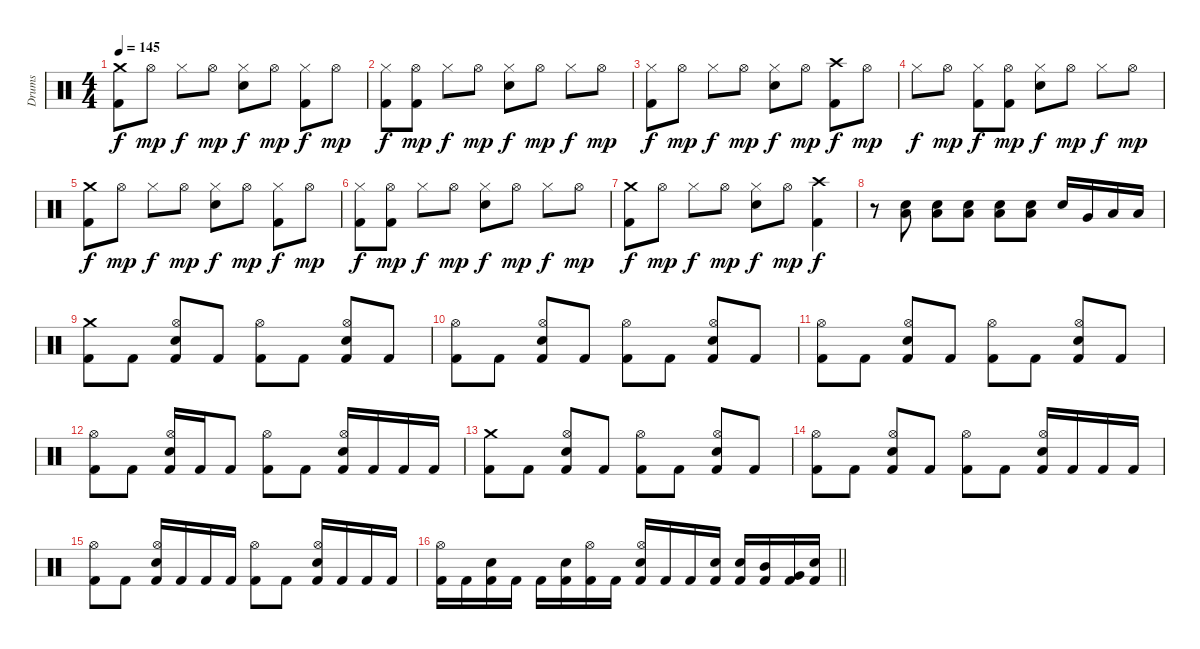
\track ("Drums" "Drums") {instrument percussion}
\staff {score}
\articulation defaults
\ts (4 4)
\tempo 145
\clef neutral
\ks c
("Crash medium (hit)" "Kick (hit) 2").8{dy f} "Hi-Hat (open)".8{dy mp} "Hi-Hat (closed)".8{dy f} "Hi-Hat (open)".8{dy mp} ("Hi-Hat (closed)" "Electric Snare (hit)").8{dy f} "Hi-Hat (open)".8{dy mp} ("Hi-Hat (closed)" "Kick (hit) 2").8{dy f} "Hi-Hat (open)".8{dy mp} |
("Hi-Hat (closed)" "Kick (hit) 2").8{dy f} ("Hi-Hat (open)" "Kick (hit) 2").8{dy mp} "Hi-Hat (closed)".8{dy f} "Hi-Hat (open)".8{dy mp} ("Hi-Hat (closed)" "Electric Snare (hit)").8{dy f} "Hi-Hat (open)".8{dy mp} "Hi-Hat (closed)".8{dy f} "Hi-Hat (open)".8{dy mp} |
("Hi-Hat (closed)" "Kick (hit) 2").8{dy f} "Hi-Hat (open)".8{dy mp} "Hi-Hat (closed)".8{dy f} "Hi-Hat (open)".8{dy mp} ("Hi-Hat (closed)" "Electric Snare (hit)").8{dy f} "Hi-Hat (open)".8{dy mp} ("Crash high (hit)" "Kick (hit) 2").8{dy f} "Hi-Hat (open)".8{dy mp} |
"Hi-Hat (closed)".8{dy f} "Hi-Hat (open)".8{dy mp} ("Hi-Hat (closed)" "Kick (hit) 2").8{dy f} ("Hi-Hat (open)" "Kick (hit) 2").8{dy mp} ("Hi-Hat (closed)" "Electric Snare (hit)").8{dy f} "Hi-Hat (open)".8{dy mp} "Hi-Hat (closed)".8{dy f} "Hi-Hat (open)".8{dy mp} |
("Crash medium (hit)" "Kick (hit) 2").8{dy f} "Hi-Hat (open)".8{dy mp} "Hi-Hat (closed)".8{dy f} "Hi-Hat (open)".8{dy mp} ("Hi-Hat (closed)" "Electric Snare (hit)").8{dy f} "Hi-Hat (open)".8{dy mp} ("Hi-Hat (closed)" "Kick (hit) 2").8{dy f} "Hi-Hat (open)".8{dy mp} |
("Hi-Hat (closed)" "Kick (hit) 2").8{dy f} ("Hi-Hat (open)" "Kick (hit) 2").8{dy mp} "Hi-Hat (closed)".8{dy f} "Hi-Hat (open)".8{dy mp} ("Hi-Hat (closed)" "Electric Snare (hit)").8{dy f} "Hi-Hat (open)".8{dy mp} "Hi-Hat (closed)".8{dy f} "Hi-Hat (open)".8{dy mp} |
("Crash medium (hit)" "Kick (hit) 2").8{dy f} "Hi-Hat (open)".8{dy mp} "Hi-Hat (closed)".8{dy f} "Hi-Hat (open)".8{dy mp} ("Hi-Hat (closed)" "Electric Snare (hit)").8{dy f} "Hi-Hat (open)".8{dy mp} ("Crash high (hit)" "Kick (hit) 2").4{dy f} |
r.8 ("Electric Snare (hit)" "Low Tom (hit)").8 ("Electric Snare (hit)" "Low Tom (hit)").8 ("Electric Snare (hit)" "Low Tom (hit)").8 ("Electric Snare (hit)" "Low Tom (hit)").8 ("Electric Snare (hit)" "Low Tom (hit)").8 "Electric Snare (hit)".16 "Very Low Tom (hit)".16 "Low Floor Tom (hit)".16 "Low Floor Tom (hit)".16 |
("Kick (hit) 2" "Crash medium (hit)").8 "Kick (hit) 2".8 ("Electric Snare (hit)" "Hi-Hat (open)" "Kick (hit) 2").8 "Kick (hit) 2".8 ("Hi-Hat (open)" "Kick (hit) 2").8 "Kick (hit) 2".8 ("Hi-Hat (open)" "Electric Snare (hit)" "Kick (hit) 2").8 "Kick (hit) 2".8 |
("Hi-Hat (open)" "Kick (hit) 2").8 "Kick (hit) 2".8 ("Hi-Hat (open)" "Electric Snare (hit)" "Kick (hit) 2").8 "Kick (hit) 2".8 ("Hi-Hat (open)" "Kick (hit) 2").8 "Kick (hit) 2".8 ("Hi-Hat (open)" "Electric Snare (hit)" "Kick (hit) 2").8 "Kick (hit) 2".8 |
("Hi-Hat (open)" "Kick (hit) 2").8 "Kick (hit) 2".8 ("Hi-Hat (open)" "Electric Snare (hit)" "Kick (hit) 2").8 "Kick (hit) 2".8 ("Hi-Hat (open)" "Kick (hit) 2").8 "Kick (hit) 2".8 ("Hi-Hat (open)" "Electric Snare (hit)" "Kick (hit) 2").8 "Kick (hit) 2".8 |
("Hi-Hat (open)" "Kick (hit) 2").8 "Kick (hit) 2".8 ("Hi-Hat (open)" "Electric Snare (hit)" "Kick (hit) 2").16 "Kick (hit) 2".16 "Kick (hit) 2".8 ("Hi-Hat (open)" "Kick (hit) 2").8 "Kick (hit) 2".8 ("Hi-Hat (open)" "Electric Snare (hit)" "Kick (hit) 2").16 "Kick (hit) 2".16 "Kick (hit) 2".16 "Kick (hit) 2".16 |
("Kick (hit) 2" "Crash medium (hit)").8 "Kick (hit) 2".8 ("Electric Snare (hit)" "Hi-Hat (open)" "Kick (hit) 2").8 "Kick (hit) 2".8 ("Hi-Hat (open)" "Kick (hit) 2").8 "Kick (hit) 2".8 ("Hi-Hat (open)" "Electric Snare (hit)" "Kick (hit) 2").8 "Kick (hit) 2".8 |
("Hi-Hat (open)" "Kick (hit) 2").8 "Kick (hit) 2".8 ("Hi-Hat (open)" "Electric Snare (hit)" "Kick (hit) 2").8 "Kick (hit) 2".8 ("Hi-Hat (open)" "Kick (hit) 2").8 "Kick (hit) 2".8 ("Hi-Hat (open)" "Electric Snare (hit)" "Kick (hit) 2").16 "Kick (hit) 2".16 "Kick (hit) 2".16 "Kick (hit) 2".16 |
("Hi-Hat (open)" "Kick (hit) 2").8 "Kick (hit) 2".8 ("Hi-Hat (open)" "Electric Snare (hit)" "Kick (hit) 2").16 "Kick (hit) 2".16 "Kick (hit) 2".16 "Kick (hit) 2".16 ("Hi-Hat (open)" "Kick (hit) 2").8 "Kick (hit) 2".8 ("Hi-Hat (open)" "Electric Snare (hit)" "Kick (hit) 2").16 "Kick (hit) 2".16 "Kick (hit) 2".16 "Kick (hit) 2".16 |
\barLineRight lightlight
("Hi-Hat (open)" "Kick (hit) 2").16 "Kick (hit) 2".16 ("Electric Snare (hit)" "Kick (hit) 2").16 "Kick (hit) 2".16 "Kick (hit) 2".16 ("Electric Snare (hit)" "Kick (hit) 2").16 ("Hi-Hat (open)" "Kick (hit) 2").16 "Kick (hit) 2".16 ("Electric Snare (hit)" "Hi-Hat (open)" "Kick (hit) 2").16 "Kick (hit) 2".16 "Kick (hit) 2".16 ("Electric Snare (hit)" "Kick (hit) 2").16 ("Electric Snare (hit)" "Kick (hit) 2").16 ("Mid Tom (hit)" "Kick (hit) 2").16 ("Very Low Tom (hit)" "Kick (hit) 2").16 ("Electric Snare (hit)" "Kick (hit) 2").16
